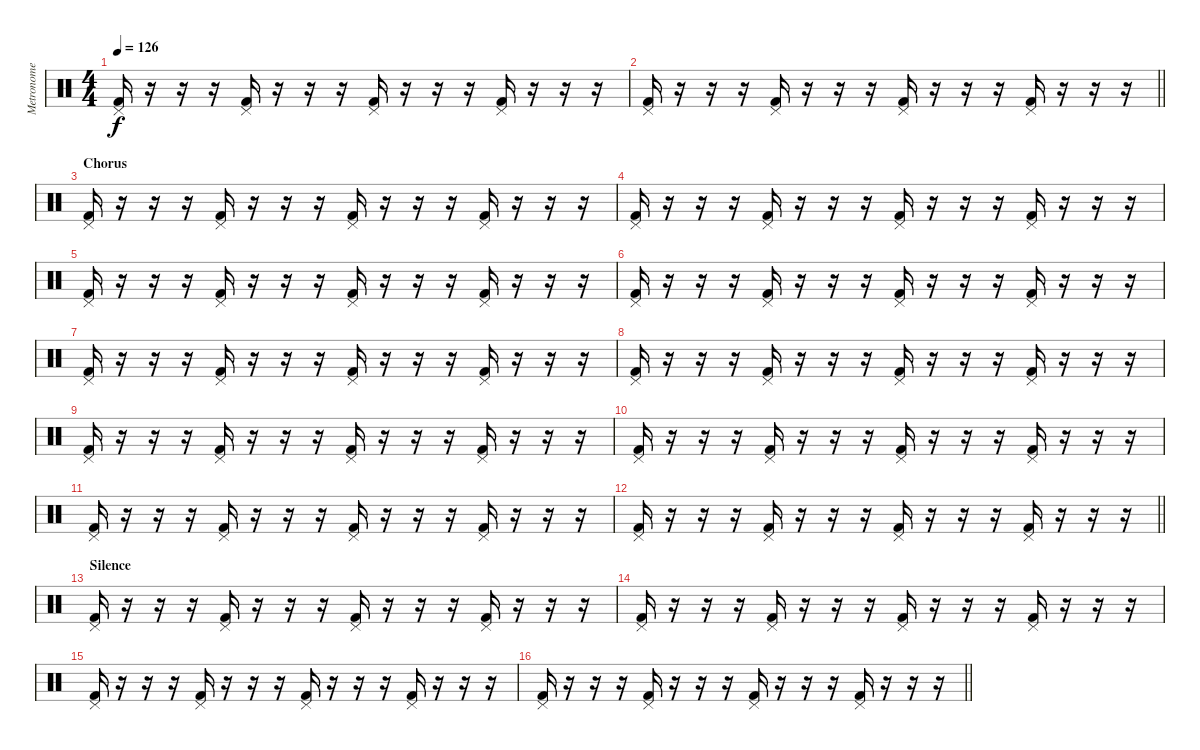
\track ("Metronome" "Metronome") {mute instrument percussion}
\staff {score}
\articulation defaults
\ts (4 4)
\tempo 126
\clef neutral
\ks c
("Pedal Hi-Hat (hit)" "Kick (hit) 2").16{dy f} r.16 r.16 r.16 ("Pedal Hi-Hat (hit)" "Kick (hit) 2").16 r.16 r.16 r.16 ("Pedal Hi-Hat (hit)" "Kick (hit) 2").16 r.16 r.16 r.16 ("Pedal Hi-Hat (hit)" "Kick (hit) 2").16 r.16 r.16 r.16 |
\barLineRight lightlight
("Pedal Hi-Hat (hit)" "Kick (hit) 2").16 r.16 r.16 r.16 ("Pedal Hi-Hat (hit)" "Kick (hit) 2").16 r.16 r.16 r.16 ("Pedal Hi-Hat (hit)" "Kick (hit) 2").16 r.16 r.16 r.16 ("Pedal Hi-Hat (hit)" "Kick (hit) 2").16 r.16 r.16 r.16 |
\section ("" "Chorus")
("Pedal Hi-Hat (hit)" "Kick (hit) 2").16 r.16 r.16 r.16 ("Pedal Hi-Hat (hit)" "Kick (hit) 2").16 r.16 r.16 r.16 ("Pedal Hi-Hat (hit)" "Kick (hit) 2").16 r.16 r.16 r.16 ("Pedal Hi-Hat (hit)" "Kick (hit) 2").16 r.16 r.16 r.16 |
("Pedal Hi-Hat (hit)" "Kick (hit) 2").16 r.16 r.16 r.16 ("Pedal Hi-Hat (hit)" "Kick (hit) 2").16 r.16 r.16 r.16 ("Pedal Hi-Hat (hit)" "Kick (hit) 2").16 r.16 r.16 r.16 ("Pedal Hi-Hat (hit)" "Kick (hit) 2").16 r.16 r.16 r.16 |
("Pedal Hi-Hat (hit)" "Kick (hit) 2").16 r.16 r.16 r.16 ("Pedal Hi-Hat (hit)" "Kick (hit) 2").16 r.16 r.16 r.16 ("Pedal Hi-Hat (hit)" "Kick (hit) 2").16 r.16 r.16 r.16 ("Pedal Hi-Hat (hit)" "Kick (hit) 2").16 r.16 r.16 r.16 |
("Pedal Hi-Hat (hit)" "Kick (hit) 2").16 r.16 r.16 r.16 ("Pedal Hi-Hat (hit)" "Kick (hit) 2").16 r.16 r.16 r.16 ("Pedal Hi-Hat (hit)" "Kick (hit) 2").16 r.16 r.16 r.16 ("Pedal Hi-Hat (hit)" "Kick (hit) 2").16 r.16 r.16 r.16 |
("Pedal Hi-Hat (hit)" "Kick (hit) 2").16 r.16 r.16 r.16 ("Pedal Hi-Hat (hit)" "Kick (hit) 2").16 r.16 r.16 r.16 ("Pedal Hi-Hat (hit)" "Kick (hit) 2").16 r.16 r.16 r.16 ("Pedal Hi-Hat (hit)" "Kick (hit) 2").16 r.16 r.16 r.16 |
("Pedal Hi-Hat (hit)" "Kick (hit) 2").16 r.16 r.16 r.16 ("Pedal Hi-Hat (hit)" "Kick (hit) 2").16 r.16 r.16 r.16 ("Pedal Hi-Hat (hit)" "Kick (hit) 2").16 r.16 r.16 r.16 ("Pedal Hi-Hat (hit)" "Kick (hit) 2").16 r.16 r.16 r.16 |
("Pedal Hi-Hat (hit)" "Kick (hit) 2").16 r.16 r.16 r.16 ("Pedal Hi-Hat (hit)" "Kick (hit) 2").16 r.16 r.16 r.16 ("Pedal Hi-Hat (hit)" "Kick (hit) 2").16 r.16 r.16 r.16 ("Pedal Hi-Hat (hit)" "Kick (hit) 2").16 r.16 r.16 r.16 |
("Pedal Hi-Hat (hit)" "Kick (hit) 2").16 r.16 r.16 r.16 ("Pedal Hi-Hat (hit)" "Kick (hit) 2").16 r.16 r.16 r.16 ("Pedal Hi-Hat (hit)" "Kick (hit) 2").16 r.16 r.16 r.16 ("Pedal Hi-Hat (hit)" "Kick (hit) 2").16 r.16 r.16 r.16 |
("Pedal Hi-Hat (hit)" "Kick (hit) 2").16 r.16 r.16 r.16 ("Pedal Hi-Hat (hit)" "Kick (hit) 2").16 r.16 r.16 r.16 ("Pedal Hi-Hat (hit)" "Kick (hit) 2").16 r.16 r.16 r.16 ("Pedal Hi-Hat (hit)" "Kick (hit) 2").16 r.16 r.16 r.16 |
\barLineRight lightlight
("Pedal Hi-Hat (hit)" "Kick (hit) 2").16 r.16 r.16 r.16 ("Pedal Hi-Hat (hit)" "Kick (hit) 2").16 r.16 r.16 r.16 ("Pedal Hi-Hat (hit)" "Kick (hit) 2").16 r.16 r.16 r.16 ("Pedal Hi-Hat (hit)" "Kick (hit) 2").16 r.16 r.16 r.16 |
\section ("" "Silence")
("Pedal Hi-Hat (hit)" "Kick (hit) 2").16 r.16 r.16 r.16 ("Pedal Hi-Hat (hit)" "Kick (hit) 2").16 r.16 r.16 r.16 ("Pedal Hi-Hat (hit)" "Kick (hit) 2").16 r.16 r.16 r.16 ("Pedal Hi-Hat (hit)" "Kick (hit) 2").16 r.16 r.16 r.16 |
("Pedal Hi-Hat (hit)" "Kick (hit) 2").16 r.16 r.16 r.16 ("Pedal Hi-Hat (hit)" "Kick (hit) 2").16 r.16 r.16 r.16 ("Pedal Hi-Hat (hit)" "Kick (hit) 2").16 r.16 r.16 r.16 ("Pedal Hi-Hat (hit)" "Kick (hit) 2").16 r.16 r.16 r.16 |
("Pedal Hi-Hat (hit)" "Kick (hit) 2").16 r.16 r.16 r.16 ("Pedal Hi-Hat (hit)" "Kick (hit) 2").16 r.16 r.16 r.16 ("Pedal Hi-Hat (hit)" "Kick (hit) 2").16 r.16 r.16 r.16 ("Pedal Hi-Hat (hit)" "Kick (hit) 2").16 r.16 r.16 r.16 |
\barLineRight lightlight
("Pedal Hi-Hat (hit)" "Kick (hit) 2").16 r.16 r.16 r.16 ("Pedal Hi-Hat (hit)" "Kick (hit) 2").16 r.16 r.16 r.16 ("Pedal Hi-Hat (hit)" "Kick (hit) 2").16 r.16 r.16 r.16 ("Pedal Hi-Hat (hit)" "Kick (hit) 2").16 r.16 r.16 r.16
